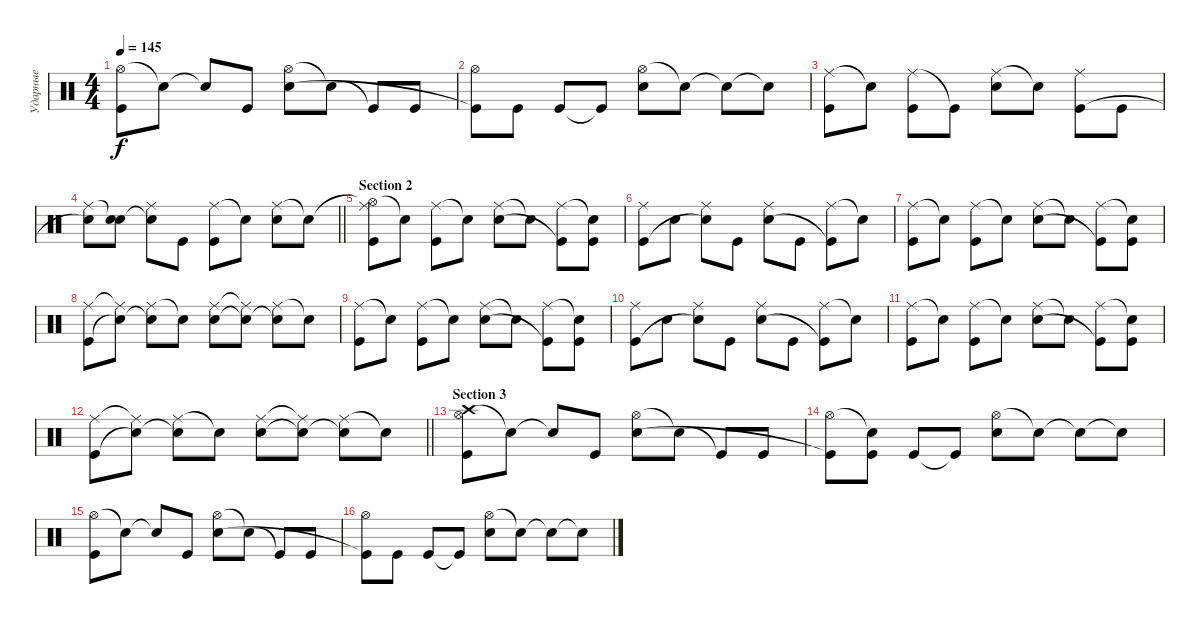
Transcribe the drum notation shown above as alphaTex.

\track ("Ударные" "Ударные") {instrument percussion}
\staff {score}
\articulation defaults
\ts (4 4)
\tempo 145
\clef neutral
\ks c
("Hi-Hat (open)" "Kick (hit)").8{dy f} "Snare (hit)"{t}.8 "Snare (hit)"{t}.8 "Kick (hit)".8 ("Hi-Hat (open)" "Snare (hit) 2").8 "Snare (hit)"{t}.8 "Kick (hit)"{t}.8 "Kick (hit)".8 |
("Hi-Hat (open)" "Kick (hit)"{t}).8 "Kick (hit)".8 "Kick (hit)".8 "Kick (hit)"{t}.8 ("Hi-Hat (open)" "Snare (hit) 2").8 "Snare (hit)"{t}.8 "Snare (hit)"{t}.8 "Snare (hit)"{t}.8 |
("Ride (middle)" "Kick (hit)").8 "Snare (hit)"{t}.8 ("Ride (middle)" "Kick (hit)").8 "Kick (hit)"{t}.8 ("Ride (middle)" "Snare (hit) 2").8 "Snare (hit)"{t}.8 ("Ride (middle)" "Kick (hit)").8 "Kick (hit)".8 |
\barLineRight lightlight
("Ride (middle)" "Snare (hit) 2"{t}).8 ("Snare (hit)"{t} "Snare (hit) 2").8 ("Ride (middle)" "Snare (hit) 2"{t}).8 "Kick (hit)".8 ("Ride (middle)" "Kick (hit)").8 "Snare (hit) 2"{t}.8 ("Ride (middle)" "Snare (hit) 2").8 "Snare (hit)"{t}.8 |
\section ("" "Section 2")
("Hi-Hat (open)"{t} "Ride (middle)" "Kick (hit)").8 "Snare (hit)"{t}.8 ("Ride (middle)" "Kick (hit)").8 "Snare (hit)"{t}.8 ("Ride (middle)" "Snare (hit) 2").8 "Snare (hit)"{t}.8 ("Ride (middle)" "Kick (hit)"{t}).8 ("Snare (hit)"{t} "Kick (hit)").8 |
("Ride (middle)" "Kick (hit)").8 "Snare (hit) 2".8 ("Ride (middle)" "Snare (hit) 2"{t}).8 "Kick (hit)".8 ("Ride (middle)" "Snare (hit) 2").8 "Kick (hit)".8 ("Ride (middle)" "Kick (hit)"{t}).8 "Snare (hit)"{t}.8 |
("Ride (middle)" "Kick (hit)").8 "Snare (hit)"{t}.8 ("Ride (middle)" "Kick (hit)").8 "Snare (hit)"{t}.8 ("Ride (middle)" "Snare (hit) 2").8 "Snare (hit)"{t}.8 ("Ride (middle)" "Kick (hit)"{t}).8 ("Snare (hit)"{t} "Kick (hit)").8 |
("Ride (middle)" "Kick (hit)").8 ("Ride (middle)"{t} "Snare (hit)"{t}).8 ("Ride (middle)" "Snare (hit)"{t}).8 "Snare (hit)"{t}.8 ("Ride (middle)" "Snare (hit) 2").8 ("Ride (middle)"{t} "Snare (hit)"{t}).8 ("Ride (middle)" "Snare (hit)"{t}).8 "Snare (hit)"{t}.8 |
("Ride (middle)" "Kick (hit)").8 "Snare (hit)"{t}.8 ("Ride (middle)" "Kick (hit)").8 "Snare (hit)"{t}.8 ("Ride (middle)" "Snare (hit) 2").8 "Snare (hit)"{t}.8 ("Ride (middle)" "Kick (hit)"{t}).8 ("Snare (hit)"{t} "Kick (hit)").8 |
("Ride (middle)" "Kick (hit)").8 "Snare (hit) 2".8 ("Ride (middle)" "Snare (hit) 2"{t}).8 "Kick (hit)".8 ("Ride (middle)" "Snare (hit) 2").8 "Kick (hit)".8 ("Ride (middle)" "Kick (hit)"{t}).8 "Snare (hit)"{t}.8 |
("Ride (middle)" "Kick (hit)").8 "Snare (hit)"{t}.8 ("Ride (middle)" "Kick (hit)").8 "Snare (hit)"{t}.8 ("Ride (middle)" "Snare (hit) 2").8 "Snare (hit)"{t}.8 ("Ride (middle)" "Kick (hit)"{t}).8 ("Snare (hit)"{t} "Kick (hit)").8 |
\barLineRight lightlight
("Ride (middle)" "Kick (hit)").8 ("Ride (middle)"{t} "Snare (hit)"{t}).8 ("Ride (middle)" "Snare (hit)"{t}).8 "Snare (hit)"{t}.8 ("Ride (middle)" "Snare (hit) 2").8 ("Ride (middle)"{t} "Snare (hit)"{t}).8 ("Ride (middle)" "Snare (hit)"{t}).8 "Snare (hit)"{t}.8 |
\section ("" "Section 3")
("Crash high (hit)" "Hi-Hat (open)" "Kick (hit)").8 "Snare (hit)"{t}.8 "Snare (hit)"{t}.8 "Kick (hit)".8 ("Hi-Hat (open)" "Snare (hit) 2").8 "Snare (hit)"{t}.8 "Kick (hit)"{t}.8 "Kick (hit)".8 |
("Hi-Hat (open)" "Kick (hit)"{t}).8 ("Snare (hit)"{t} "Kick (hit)").8 "Kick (hit)".8 "Kick (hit)"{t}.8 ("Hi-Hat (open)" "Snare (hit) 2").8 "Snare (hit)"{t}.8 "Snare (hit)"{t}.8 "Snare (hit)"{t}.8 |
("Hi-Hat (open)" "Kick (hit)").8 "Snare (hit)"{t}.8 "Snare (hit)"{t}.8 "Kick (hit)".8 ("Hi-Hat (open)" "Snare (hit) 2").8 "Snare (hit)"{t}.8 "Kick (hit)"{t}.8 "Kick (hit)".8 |
("Hi-Hat (open)" "Kick (hit)"{t}).8 "Kick (hit)".8 "Kick (hit)".8 "Kick (hit)"{t}.8 ("Hi-Hat (open)" "Snare (hit) 2").8 "Snare (hit)"{t}.8 "Snare (hit)"{t}.8 "Snare (hit)"{t}.8
